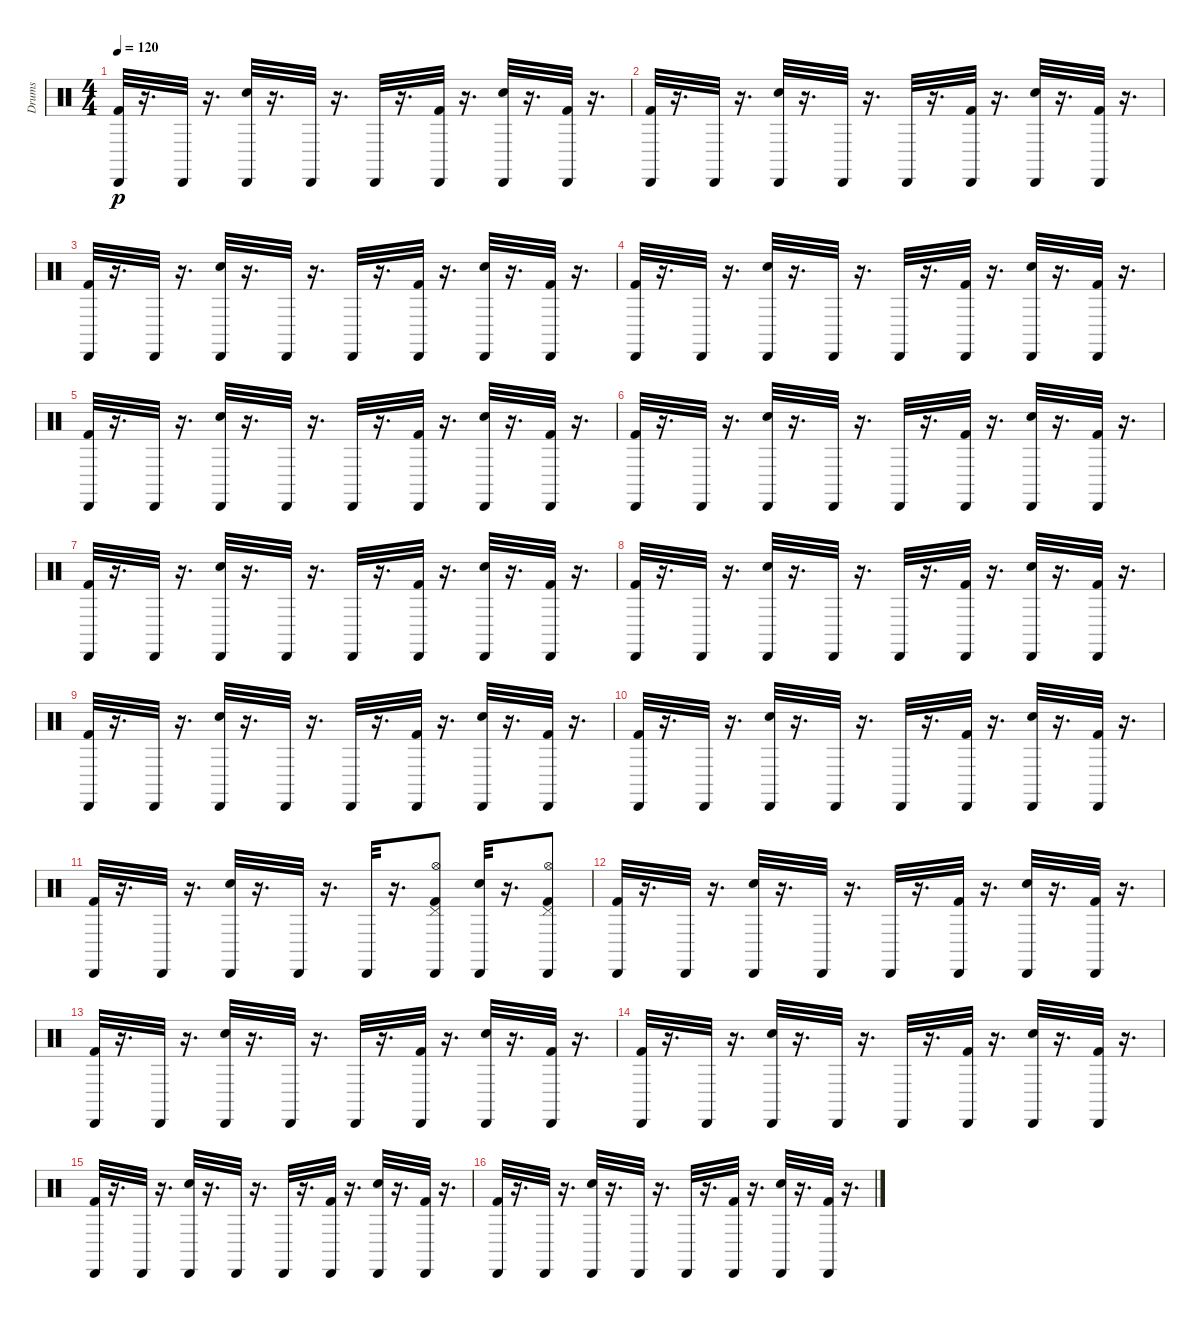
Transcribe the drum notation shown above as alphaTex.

\track ("Drums" "Drums") {instrument percussion}
\staff {score}
\articulation defaults
\ts (4 4)
\tempo 120
\clef neutral
\ks c
("Cabasa (hit)" "Kick (hit) 2").32{dy p} r.16{d} "Cabasa (hit)".32 r.16{d} ("Cabasa (hit)" "Electric Snare (hit)").32 r.16{d} "Cabasa (hit)".32 r.16{d} "Cabasa (hit)".32 r.16{d} ("Cabasa (hit)" "Kick (hit) 2").32 r.16{d} ("Cabasa (hit)" "Electric Snare (hit)").32 r.16{d} ("Cabasa (hit)" "Kick (hit) 2").32 r.16{d} |
("Cabasa (hit)" "Kick (hit) 2").32 r.16{d} "Cabasa (hit)".32 r.16{d} ("Cabasa (hit)" "Electric Snare (hit)").32 r.16{d} "Cabasa (hit)".32 r.16{d} "Cabasa (hit)".32 r.16{d} ("Cabasa (hit)" "Kick (hit) 2").32 r.16{d} ("Cabasa (hit)" "Electric Snare (hit)").32 r.16{d} ("Cabasa (hit)" "Kick (hit) 2").32 r.16{d} |
("Cabasa (hit)" "Kick (hit) 2").32 r.16{d} "Cabasa (hit)".32 r.16{d} ("Cabasa (hit)" "Electric Snare (hit)").32 r.16{d} "Cabasa (hit)".32 r.16{d} "Cabasa (hit)".32 r.16{d} ("Cabasa (hit)" "Kick (hit) 2").32 r.16{d} ("Cabasa (hit)" "Electric Snare (hit)").32 r.16{d} ("Cabasa (hit)" "Kick (hit) 2").32 r.16{d} |
("Cabasa (hit)" "Kick (hit) 2").32 r.16{d} "Cabasa (hit)".32 r.16{d} ("Cabasa (hit)" "Electric Snare (hit)").32 r.16{d} "Cabasa (hit)".32 r.16{d} "Cabasa (hit)".32 r.16{d} ("Cabasa (hit)" "Kick (hit) 2").32 r.16{d} ("Cabasa (hit)" "Electric Snare (hit)").32 r.16{d} ("Cabasa (hit)" "Kick (hit) 2").32 r.16{d} |
("Cabasa (hit)" "Kick (hit) 2").32 r.16{d} "Cabasa (hit)".32 r.16{d} ("Cabasa (hit)" "Electric Snare (hit)").32 r.16{d} "Cabasa (hit)".32 r.16{d} "Cabasa (hit)".32 r.16{d} ("Cabasa (hit)" "Kick (hit) 2").32 r.16{d} ("Cabasa (hit)" "Electric Snare (hit)").32 r.16{d} ("Cabasa (hit)" "Kick (hit) 2").32 r.16{d} |
("Cabasa (hit)" "Kick (hit) 2").32 r.16{d} "Cabasa (hit)".32 r.16{d} ("Cabasa (hit)" "Electric Snare (hit)").32 r.16{d} "Cabasa (hit)".32 r.16{d} "Cabasa (hit)".32 r.16{d} ("Cabasa (hit)" "Kick (hit) 2").32 r.16{d} ("Cabasa (hit)" "Electric Snare (hit)").32 r.16{d} ("Cabasa (hit)" "Kick (hit) 2").32 r.16{d} |
("Cabasa (hit)" "Kick (hit) 2").32 r.16{d} "Cabasa (hit)".32 r.16{d} ("Cabasa (hit)" "Electric Snare (hit)").32 r.16{d} "Cabasa (hit)".32 r.16{d} "Cabasa (hit)".32 r.16{d} ("Cabasa (hit)" "Kick (hit) 2").32 r.16{d} ("Cabasa (hit)" "Electric Snare (hit)").32 r.16{d} ("Cabasa (hit)" "Kick (hit) 2").32 r.16{d} |
("Cabasa (hit)" "Kick (hit) 2").32 r.16{d} "Cabasa (hit)".32 r.16{d} ("Cabasa (hit)" "Electric Snare (hit)").32 r.16{d} "Cabasa (hit)".32 r.16{d} "Cabasa (hit)".32 r.16{d} ("Cabasa (hit)" "Kick (hit) 2").32 r.16{d} ("Cabasa (hit)" "Electric Snare (hit)").32 r.16{d} ("Cabasa (hit)" "Kick (hit) 2").32 r.16{d} |
("Cabasa (hit)" "Kick (hit) 2").32 r.16{d} "Cabasa (hit)".32 r.16{d} ("Cabasa (hit)" "Electric Snare (hit)").32 r.16{d} "Cabasa (hit)".32 r.16{d} "Cabasa (hit)".32 r.16{d} ("Cabasa (hit)" "Kick (hit) 2").32 r.16{d} ("Cabasa (hit)" "Electric Snare (hit)").32 r.16{d} ("Cabasa (hit)" "Kick (hit) 2").32 r.16{d} |
("Cabasa (hit)" "Kick (hit) 2").32 r.16{d} "Cabasa (hit)".32 r.16{d} ("Cabasa (hit)" "Electric Snare (hit)").32 r.16{d} "Cabasa (hit)".32 r.16{d} "Cabasa (hit)".32 r.16{d} ("Cabasa (hit)" "Kick (hit) 2").32 r.16{d} ("Cabasa (hit)" "Electric Snare (hit)").32 r.16{d} ("Cabasa (hit)" "Kick (hit) 2").32 r.16{d} |
("Cabasa (hit)" "Kick (hit) 2").32 r.16{d} "Cabasa (hit)".32 r.16{d} ("Cabasa (hit)" "Electric Snare (hit)").32 r.16{d} "Cabasa (hit)".32 r.16{d} "Cabasa (hit)".32 r.16{d} ("Pedal Hi-Hat (hit)" "Hi-Hat (open)" "Cabasa (hit)" "Kick (hit) 2").8 ("Cabasa (hit)" "Electric Snare (hit)").32 r.16{d} ("Pedal Hi-Hat (hit)" "Hi-Hat (open)" "Cabasa (hit)" "Kick (hit) 2").8 |
("Cabasa (hit)" "Kick (hit) 2").32 r.16{d} "Cabasa (hit)".32 r.16{d} ("Cabasa (hit)" "Electric Snare (hit)").32 r.16{d} "Cabasa (hit)".32 r.16{d} "Cabasa (hit)".32 r.16{d} ("Cabasa (hit)" "Kick (hit) 2").32 r.16{d} ("Cabasa (hit)" "Electric Snare (hit)").32 r.16{d} ("Cabasa (hit)" "Kick (hit) 2").32 r.16{d} |
("Cabasa (hit)" "Kick (hit) 2").32 r.16{d} "Cabasa (hit)".32 r.16{d} ("Cabasa (hit)" "Electric Snare (hit)").32 r.16{d} "Cabasa (hit)".32 r.16{d} "Cabasa (hit)".32 r.16{d} ("Cabasa (hit)" "Kick (hit) 2").32 r.16{d} ("Cabasa (hit)" "Electric Snare (hit)").32 r.16{d} ("Cabasa (hit)" "Kick (hit) 2").32 r.16{d} |
("Cabasa (hit)" "Kick (hit) 2").32 r.16{d} "Cabasa (hit)".32 r.16{d} ("Cabasa (hit)" "Electric Snare (hit)").32 r.16{d} "Cabasa (hit)".32 r.16{d} "Cabasa (hit)".32 r.16{d} ("Cabasa (hit)" "Kick (hit) 2").32 r.16{d} ("Cabasa (hit)" "Electric Snare (hit)").32 r.16{d} ("Cabasa (hit)" "Kick (hit) 2").32 r.16{d} |
("Cabasa (hit)" "Kick (hit) 2").32 r.16{d} "Cabasa (hit)".32 r.16{d} ("Cabasa (hit)" "Electric Snare (hit)").32 r.16{d} "Cabasa (hit)".32 r.16{d} "Cabasa (hit)".32 r.16{d} ("Cabasa (hit)" "Kick (hit) 2").32 r.16{d} ("Cabasa (hit)" "Electric Snare (hit)").32 r.16{d} ("Cabasa (hit)" "Kick (hit) 2").32 r.16{d} |
("Cabasa (hit)" "Kick (hit) 2").32 r.16{d} "Cabasa (hit)".32 r.16{d} ("Cabasa (hit)" "Electric Snare (hit)").32 r.16{d} "Cabasa (hit)".32 r.16{d} "Cabasa (hit)".32 r.16{d} ("Cabasa (hit)" "Kick (hit) 2").32 r.16{d} ("Cabasa (hit)" "Electric Snare (hit)").32 r.16{d} ("Cabasa (hit)" "Kick (hit) 2").32 r.16{d}
